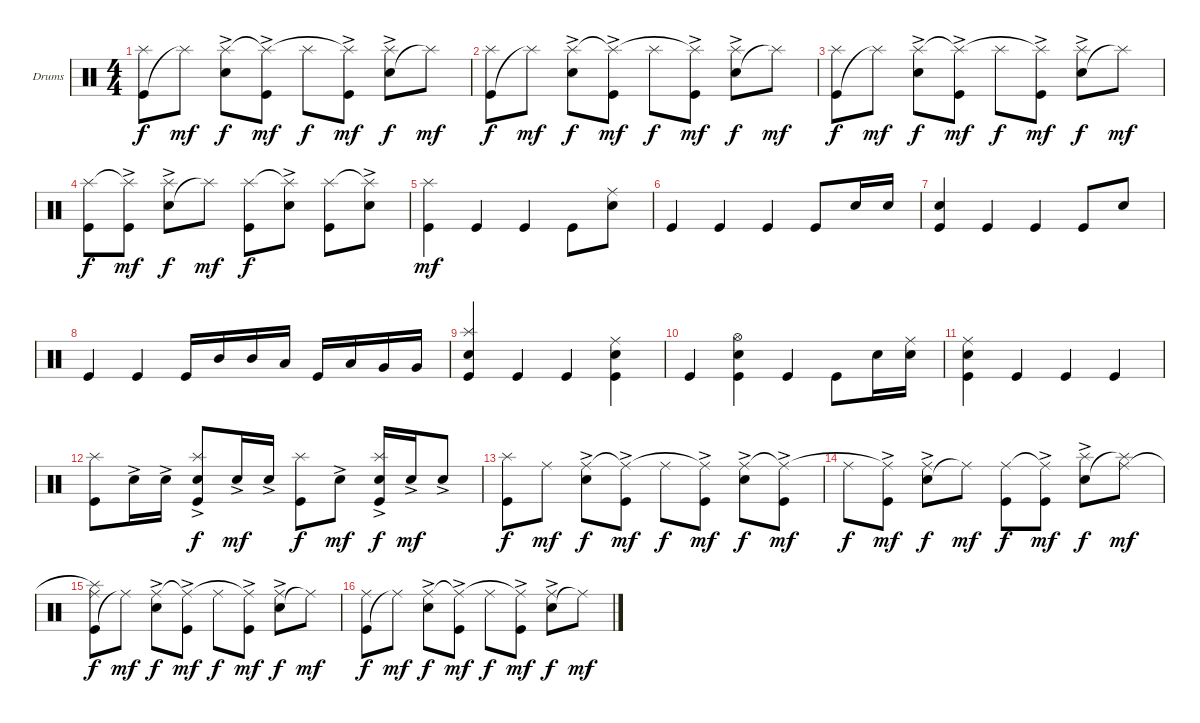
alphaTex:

\defaultSystemsLayout 4
\bracketExtendMode groupsimilarinstruments
\firstSystemTrackNameOrientation horizontal
\otherSystemsTrackNameOrientation horizontal
\track ("Drumkit" "Drums") {instrument percussion}
\staff {score}
\articulation defaults
\ts (4 4)
\tempo (180 hide)
\clef neutral
\ks c
("Kick (hit)" "Splash (hit)").8{dy f} "Splash (hit)"{t}.8{dy mf} ("Snare (hit) 2"{ac} "Splash (hit)").8{dy f} ("Kick (hit)"{ac} "Splash (hit)"{t}).8{dy mf} "Splash (hit)".8{dy f} ("Kick (hit)"{ac} "Splash (hit)"{t}).8{dy mf} ("Snare (hit) 2"{ac} "Splash (hit)").8{dy f} "Splash (hit)"{t}.8{dy mf} |
("Kick (hit)" "Splash (hit)").8{dy f} "Splash (hit)"{t}.8{dy mf} ("Snare (hit) 2"{ac} "Splash (hit)").8{dy f} ("Kick (hit)"{ac} "Splash (hit)"{t}).8{dy mf} "Splash (hit)".8{dy f} ("Kick (hit)"{ac} "Splash (hit)"{t}).8{dy mf} ("Snare (hit) 2"{ac} "Splash (hit)").8{dy f} "Splash (hit)"{t}.8{dy mf} |
("Kick (hit)" "Splash (hit)").8{dy f} "Splash (hit)"{t}.8{dy mf} ("Snare (hit) 2"{ac} "Splash (hit)").8{dy f} ("Kick (hit)"{ac} "Splash (hit)"{t}).8{dy mf} "Splash (hit)".8{dy f} ("Kick (hit)"{ac} "Splash (hit)"{t}).8{dy mf} ("Snare (hit) 2"{ac} "Splash (hit)").8{dy f} "Splash (hit)"{t}.8{dy mf} |
("Kick (hit)" "Splash (hit)").8{dy f} ("Kick (hit)"{ac} "Splash (hit)"{t}).8{dy mf} ("Snare (hit) 2"{ac} "Splash (hit)").8{dy f} "Splash (hit)"{t}.8{dy mf} ("Kick (hit)" "Splash (hit)").8{dy f} ("Snare (hit) 2"{ac} "Splash (hit)"{t}).8 ("Kick (hit)" "Splash (hit)").8 ("Snare (hit) 2"{ac} "Splash (hit)"{t}).8 |
("Kick (hit)" "Splash (hit)").4{dy mf} "Kick (hit)".4 "Kick (hit)".4 "Kick (hit)".8 ("Snare (hit) 2" "Ride (middle)").8 |
"Kick (hit)".4 "Kick (hit)".4 "Kick (hit)".4 "Kick (hit)".8 "Snare (hit) 2".16 "Snare (hit) 2".16 |
("Kick (hit)" "Snare (hit) 2").4 "Kick (hit)".4 "Kick (hit)".4 "Kick (hit)".8 "Snare (hit) 2".8 |
"Kick (hit)".4 "Kick (hit)".4 "Kick (hit)".16 "Mid Tom (hit)".16 "Mid Tom (hit)".16 "Low Tom (hit)".16 "Kick (hit)".16 "Low Tom (hit)".16 "Very Low Tom (hit)".16 "Very Low Tom (hit)".16 |
("Kick (hit)" "Splash (hit)" "Snare (hit) 2").4 "Kick (hit)".4 "Kick (hit)".4 ("Kick (hit)" "Snare (hit) 2" "Ride (middle)").4 |
"Kick (hit)".4 ("Kick (hit)" "Snare (hit) 2" "Hi-Hat (open)").4 "Kick (hit)".4 "Kick (hit)".8 "Snare (hit) 2".16 ("Snare (hit) 2" "Ride (middle)").16 |
("Kick (hit)" "Ride (middle)" "Snare (hit) 2").4 "Kick (hit)".4 "Kick (hit)".4 "Kick (hit)".4 |
("Kick (hit)" "Splash (hit)").8 "Snare (hit) 2"{ac}.16 "Snare (hit) 2"{ac}.16 ("Snare (hit) 2"{ac} "Kick (hit)" "Splash (hit)").8{dy f} "Snare (hit) 2"{ac}.16{dy mf} "Snare (hit) 2"{ac}.16 ("Kick (hit)" "Splash (hit)").8{dy f} "Snare (hit) 2"{ac}.8{dy mf} ("Snare (hit) 2"{ac} "Kick (hit)" "Splash (hit)").16{dy f} "Snare (hit) 2"{ac}.16{dy mf} "Snare (hit) 2"{ac}.8 |
("Kick (hit)" "Splash (hit)").8{dy f} "Ride (middle)".8{dy mf} ("Snare (hit) 2"{ac} "Ride (middle)").8{dy f} ("Kick (hit)"{ac} "Ride (middle)"{t}).8{dy mf} "Ride (middle)".8{dy f} ("Kick (hit)"{ac} "Ride (middle)"{t}).8{dy mf} ("Snare (hit) 2"{ac} "Ride (middle)").8{dy f} ("Kick (hit)"{ac} "Ride (middle)"{t}).8{dy mf} |
"Ride (middle)".8{dy f} ("Kick (hit)"{ac} "Ride (middle)"{t}).8{dy mf} ("Snare (hit) 2"{ac} "Ride (middle)").8{dy f} "Ride (middle)"{t}.8{dy mf} ("Kick (hit)" "Ride (middle)").8{dy f} ("Kick (hit)"{ac} "Ride (middle)"{t}).8{dy mf} ("Snare (hit) 2"{ac} "Splash (hit)").8{dy f} ("Splash (hit)"{t} "Ride (middle)").8{dy mf} |
("Kick (hit)" "Splash (hit)"{t} "Ride (middle)").8{dy f} "Ride (middle)"{t}.8{dy mf} ("Snare (hit) 2"{ac} "Ride (middle)").8{dy f} ("Kick (hit)"{ac} "Ride (middle)"{t}).8{dy mf} "Ride (middle)".8{dy f} ("Kick (hit)"{ac} "Ride (middle)"{t}).8{dy mf} ("Snare (hit) 2"{ac} "Ride (middle)").8{dy f} "Ride (middle)"{t}.8{dy mf} |
("Kick (hit)" "Ride (middle)").8{dy f} "Ride (middle)"{t}.8{dy mf} ("Snare (hit) 2"{ac} "Ride (middle)").8{dy f} ("Kick (hit)"{ac} "Ride (middle)"{t}).8{dy mf} "Ride (middle)".8{dy f} ("Kick (hit)"{ac} "Ride (middle)"{t}).8{dy mf} ("Snare (hit) 2"{ac} "Ride (middle)").8{dy f} "Ride (middle)"{t}.8{dy mf}
